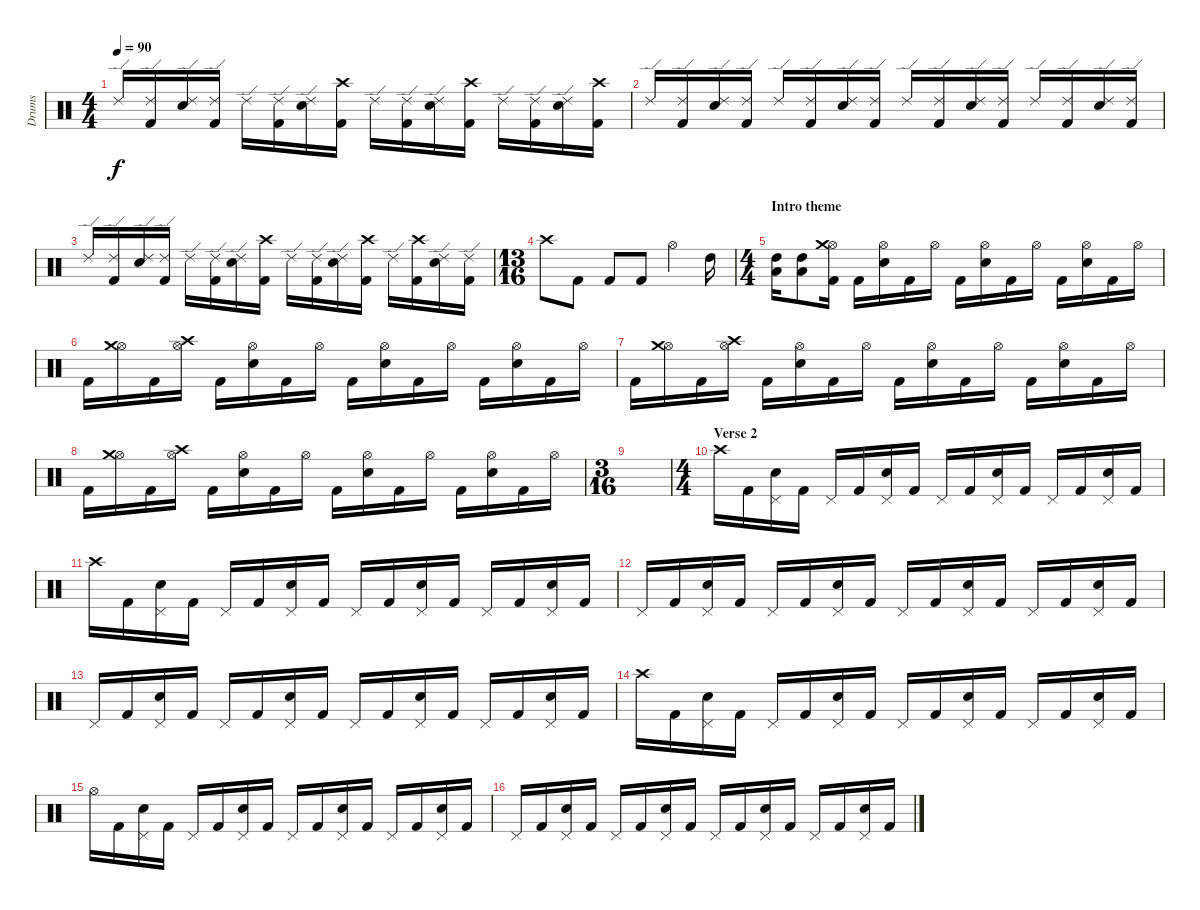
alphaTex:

\track ("Drums" "Drums") {instrument percussion}
\staff {score}
\articulation defaults
\ts (4 4)
\tempo 90
\clef neutral
\ks c "Ride (edge) 2".16{dy f}
("Ride (edge) 2" "Kick (hit) 2").16 ("Ride (edge) 2" "Snare (hit) 2").16 ("Ride (edge) 2" "Kick (hit) 2").16 "Ride (edge) 2".16 ("Ride (edge) 2" "Kick (hit) 2").16 ("Ride (edge) 2" "Snare (hit) 2").16 ("Crash high (hit)" "Kick (hit) 2").16 "Ride (edge) 2".16 ("Ride (edge) 2" "Kick (hit) 2").16 ("Ride (edge) 2" "Snare (hit) 2").16 ("Crash high (hit)" "Kick (hit) 2").16 "Ride (edge) 2".16 ("Ride (edge) 2" "Kick (hit) 2").16 ("Ride (edge) 2" "Snare (hit) 2").16 ("Crash high (hit)" "Kick (hit) 2").16 |
"Ride (edge) 2".16 ("Ride (edge) 2" "Kick (hit) 2").16 ("Ride (edge) 2" "Snare (hit) 2").16 ("Ride (edge) 2" "Kick (hit) 2").16 "Ride (edge) 2".16 ("Ride (edge) 2" "Kick (hit) 2").16 ("Ride (edge) 2" "Snare (hit) 2").16 ("Ride (edge) 2" "Kick (hit) 2").16 "Ride (edge) 2".16 ("Ride (edge) 2" "Kick (hit) 2").16 ("Ride (edge) 2" "Snare (hit) 2").16 ("Ride (edge) 2" "Kick (hit) 2").16 "Ride (edge) 2".16 ("Ride (edge) 2" "Kick (hit) 2").16 ("Ride (edge) 2" "Snare (hit) 2").16 ("Ride (edge) 2" "Kick (hit) 2").16 |
"Ride (edge) 2".16 ("Ride (edge) 2" "Kick (hit) 2").16 ("Ride (edge) 2" "Snare (hit) 2").16 ("Ride (edge) 2" "Kick (hit) 2").16 "Ride (edge) 2".16 ("Ride (edge) 2" "Kick (hit) 2").16 ("Ride (edge) 2" "Snare (hit) 2").16 ("Crash high (hit)" "Kick (hit) 2").16 "Ride (edge) 2".16 ("Ride (edge) 2" "Kick (hit) 2").16 ("Ride (edge) 2" "Snare (hit) 2").16 ("Crash high (hit)" "Kick (hit) 2").16 "Ride (edge) 2".16 ("Crash high (hit)" "Kick (hit) 2").16 ("Ride (edge) 2" "Snare (hit) 2").16 ("Ride (edge) 2" "Kick (hit) 2").16 |
\ts (13 16)
"Crash high (hit)".8 "Kick (hit) 2".8 "Kick (hit) 2".8 "Kick (hit) 2".8 "Hi-Hat (open)".4 "High Tom (hit)".16 |
\ts (4 4)
\section ("" "Intro theme")
("High Tom (hit)" "Low Tom (hit)").16 ("High Tom (hit)" "Low Tom (hit)").8 ("Hi-Hat (open)" "Crash medium (hit)" "Kick (hit) 2").16 "Kick (hit) 2".16 ("Hi-Hat (open)" "Snare (hit) 2").16 "Kick (hit) 2".16 "Hi-Hat (open)".16 "Kick (hit) 2".16 ("Hi-Hat (open)" "Snare (hit) 2").16 "Kick (hit) 2".16 "Hi-Hat (open)".16 "Kick (hit) 2".16 ("Hi-Hat (open)" "Snare (hit) 2").16 "Kick (hit) 2".16 "Hi-Hat (open)".16 |
"Kick (hit) 2".16 ("Hi-Hat (open)" "Crash medium (hit)").16 "Kick (hit) 2".16 ("Hi-Hat (open)" "Crash high (hit)").16 "Kick (hit) 2".16 ("Hi-Hat (open)" "Snare (hit) 2").16 "Kick (hit) 2".16 "Hi-Hat (open)".16 "Kick (hit) 2".16 ("Hi-Hat (open)" "Snare (hit) 2").16 "Kick (hit) 2".16 "Hi-Hat (open)".16 "Kick (hit) 2".16 ("Hi-Hat (open)" "Snare (hit) 2").16 "Kick (hit) 2".16 "Hi-Hat (open)".16 |
"Kick (hit) 2".16 ("Hi-Hat (open)" "Crash medium (hit)").16 "Kick (hit) 2".16 ("Hi-Hat (open)" "Crash high (hit)").16 "Kick (hit) 2".16 ("Hi-Hat (open)" "Snare (hit) 2").16 "Kick (hit) 2".16 "Hi-Hat (open)".16 "Kick (hit) 2".16 ("Hi-Hat (open)" "Snare (hit) 2").16 "Kick (hit) 2".16 "Hi-Hat (open)".16 "Kick (hit) 2".16 ("Hi-Hat (open)" "Snare (hit) 2").16 "Kick (hit) 2".16 "Hi-Hat (open)".16 |
"Kick (hit) 2".16 ("Hi-Hat (open)" "Crash medium (hit)").16 "Kick (hit) 2".16 ("Hi-Hat (open)" "Crash high (hit)").16 "Kick (hit) 2".16 ("Hi-Hat (open)" "Snare (hit) 2").16 "Kick (hit) 2".16 "Hi-Hat (open)".16 "Kick (hit) 2".16 ("Hi-Hat (open)" "Snare (hit) 2").16 "Kick (hit) 2".16 "Hi-Hat (open)".16 "Kick (hit) 2".16 ("Hi-Hat (open)" "Snare (hit) 2").16 "Kick (hit) 2".16 "Hi-Hat (open)".16 |
\ts (3 16)
|
\ts (4 4)
\section ("" "Verse 2")
"Crash high (hit)".16 "Kick (hit) 2".16 ("Pedal Hi-Hat (hit)" "Snare (hit) 2").16 "Kick (hit) 2".16 "Pedal Hi-Hat (hit)".16 "Kick (hit) 2".16 ("Pedal Hi-Hat (hit)" "Snare (hit) 2").16 "Kick (hit) 2".16 "Pedal Hi-Hat (hit)".16 "Kick (hit) 2".16 ("Pedal Hi-Hat (hit)" "Snare (hit) 2").16 "Kick (hit) 2".16 "Pedal Hi-Hat (hit)".16 "Kick (hit) 2".16 ("Pedal Hi-Hat (hit)" "Snare (hit) 2").16 "Kick (hit) 2".16 |
"Crash high (hit)".16 "Kick (hit) 2".16 ("Pedal Hi-Hat (hit)" "Snare (hit) 2").16 "Kick (hit) 2".16 "Pedal Hi-Hat (hit)".16 "Kick (hit) 2".16 ("Pedal Hi-Hat (hit)" "Snare (hit) 2").16 "Kick (hit) 2".16 "Pedal Hi-Hat (hit)".16 "Kick (hit) 2".16 ("Pedal Hi-Hat (hit)" "Snare (hit) 2").16 "Kick (hit) 2".16 "Pedal Hi-Hat (hit)".16 "Kick (hit) 2".16 ("Pedal Hi-Hat (hit)" "Snare (hit) 2").16 "Kick (hit) 2".16 |
"Pedal Hi-Hat (hit)".16 "Kick (hit) 2".16 ("Pedal Hi-Hat (hit)" "Snare (hit) 2").16 "Kick (hit) 2".16 "Pedal Hi-Hat (hit)".16 "Kick (hit) 2".16 ("Pedal Hi-Hat (hit)" "Snare (hit) 2").16 "Kick (hit) 2".16 "Pedal Hi-Hat (hit)".16 "Kick (hit) 2".16 ("Pedal Hi-Hat (hit)" "Snare (hit) 2").16 "Kick (hit) 2".16 "Pedal Hi-Hat (hit)".16 "Kick (hit) 2".16 ("Pedal Hi-Hat (hit)" "Snare (hit) 2").16 "Kick (hit) 2".16 |
"Pedal Hi-Hat (hit)".16 "Kick (hit) 2".16 ("Pedal Hi-Hat (hit)" "Snare (hit) 2").16 "Kick (hit) 2".16 "Pedal Hi-Hat (hit)".16 "Kick (hit) 2".16 ("Pedal Hi-Hat (hit)" "Snare (hit) 2").16 "Kick (hit) 2".16 "Pedal Hi-Hat (hit)".16 "Kick (hit) 2".16 ("Pedal Hi-Hat (hit)" "Snare (hit) 2").16 "Kick (hit) 2".16 "Pedal Hi-Hat (hit)".16 "Kick (hit) 2".16 ("Pedal Hi-Hat (hit)" "Snare (hit) 2").16 "Kick (hit) 2".16 |
"Crash high (hit)".16 "Kick (hit) 2".16 ("Pedal Hi-Hat (hit)" "Snare (hit) 2").16 "Kick (hit) 2".16 "Pedal Hi-Hat (hit)".16 "Kick (hit) 2".16 ("Pedal Hi-Hat (hit)" "Snare (hit) 2").16 "Kick (hit) 2".16 "Pedal Hi-Hat (hit)".16 "Kick (hit) 2".16 ("Pedal Hi-Hat (hit)" "Snare (hit) 2").16 "Kick (hit) 2".16 "Pedal Hi-Hat (hit)".16 "Kick (hit) 2".16 ("Pedal Hi-Hat (hit)" "Snare (hit) 2").16 "Kick (hit) 2".16 |
"Hi-Hat (open)".16 "Kick (hit) 2".16 ("Pedal Hi-Hat (hit)" "Snare (hit) 2").16 "Kick (hit) 2".16 "Pedal Hi-Hat (hit)".16 "Kick (hit) 2".16 ("Pedal Hi-Hat (hit)" "Snare (hit) 2").16 "Kick (hit) 2".16 "Pedal Hi-Hat (hit)".16 "Kick (hit) 2".16 ("Pedal Hi-Hat (hit)" "Snare (hit) 2").16 "Kick (hit) 2".16 "Pedal Hi-Hat (hit)".16 "Kick (hit) 2".16 ("Pedal Hi-Hat (hit)" "Snare (hit) 2").16 "Kick (hit) 2".16 |
"Pedal Hi-Hat (hit)".16 "Kick (hit) 2".16 ("Pedal Hi-Hat (hit)" "Snare (hit) 2").16 "Kick (hit) 2".16 "Pedal Hi-Hat (hit)".16 "Kick (hit) 2".16 ("Pedal Hi-Hat (hit)" "Snare (hit) 2").16 "Kick (hit) 2".16 "Pedal Hi-Hat (hit)".16 "Kick (hit) 2".16 ("Pedal Hi-Hat (hit)" "Snare (hit) 2").16 "Kick (hit) 2".16 "Pedal Hi-Hat (hit)".16 "Kick (hit) 2".16 ("Pedal Hi-Hat (hit)" "Snare (hit) 2").16 "Kick (hit) 2".16
